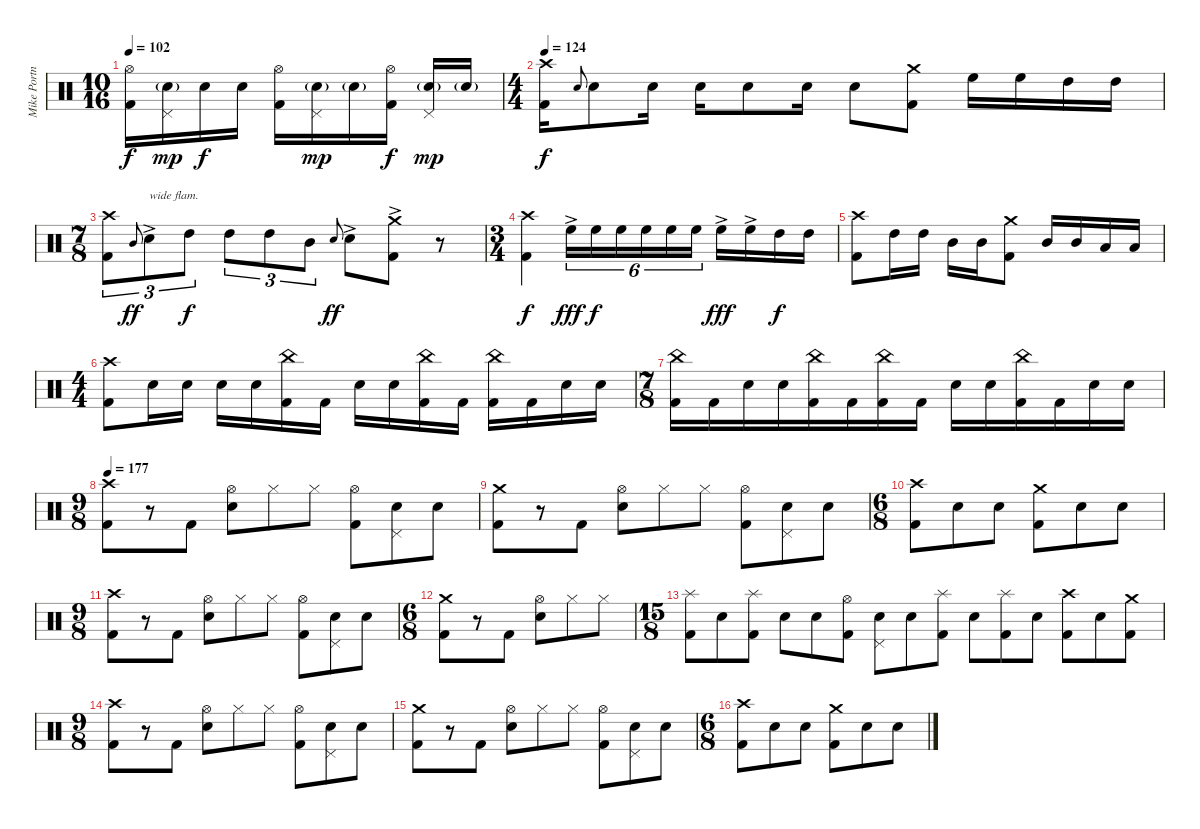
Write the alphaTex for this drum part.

\track ("Mike Portnoy" "Mike Portn") {instrument percussion}
\staff {score}
\articulation defaults
\ts (10 16)
\tempo 102
\clef neutral
\ks c
("Hi-Hat (open)" "Kick (hit) 2").16{dy f} ("Pedal Hi-Hat (hit)" "Electric Snare (hit)"{g}).16{dy mp} "Electric Snare (hit)".16{dy f} "Electric Snare (hit)".16 ("Hi-Hat (open)" "Kick (hit) 2").16 ("Pedal Hi-Hat (hit)" "Electric Snare (hit)"{g}).16{dy mp} "Electric Snare (hit)"{g}.16 ("Hi-Hat (open)" "Kick (hit) 2").16{dy f} ("Pedal Hi-Hat (hit)" "Electric Snare (hit)"{g}).16{dy mp} "Electric Snare (hit)"{g}.16 |
\ts (4 4)
\tempo 124
("Crash high (hit)" "Kick (hit) 2").16{dy f} "Electric Snare (hit)".8{gr onbeat} "Electric Snare (hit)".8 "Electric Snare (hit)".16 "Electric Snare (hit)".16 "Electric Snare (hit)".8 "Electric Snare (hit)".16 "Electric Snare (hit)".8 ("Crash medium (hit)" "Kick (hit) 2").8 "High Floor Tom (hit)".16 "High Floor Tom (hit)".16 "High Tom (hit)".16 "High Tom (hit)".16 |
\ts (7 8)
("Crash high (hit)" "Kick (hit) 2").8{tu (3 2)} "Mid Tom (hit)".8{gr onbeat dy ff} "Electric Snare (hit)"{ac}.8{tu (3 2) txt "wide flam."} "High Tom (hit)".8{tu (3 2) dy f} "High Tom (hit)".8{tu (3 2)} "High Tom (hit)".8{tu (3 2)} "Mid Tom (hit)".8{tu (3 2)} "Electric Snare (hit)".8{gr onbeat dy ff} "Electric Snare (hit)"{ac}.8 ("Crash medium (hit)"{ac} "Kick (hit) 2"{ac}).8 r.8 |
\ts (3 4)
("Crash high (hit)" "Kick (hit) 2").4{dy f} "High Floor Tom (hit)"{ac}.16{tu (6 4) dy fff} "High Floor Tom (hit)".16{tu (6 4) dy f} "High Floor Tom (hit)".16{tu (6 4)} "High Floor Tom (hit)".16{tu (6 4)} "High Floor Tom (hit)".16{tu (6 4)} "High Floor Tom (hit)".16{tu (6 4)} "High Floor Tom (hit)"{ac}.16{dy fff} "High Floor Tom (hit)"{ac}.16 "High Tom (hit)".16{dy f} "High Tom (hit)".16 |
("Crash high (hit)" "Kick (hit) 2").8 "High Tom (hit)".16 "High Tom (hit)".16 "Mid Tom (hit)".16 "Mid Tom (hit)".16 ("Crash medium (hit)" "Kick (hit) 2").8 "Mid Tom (hit)".16 "Mid Tom (hit)".16 "Low Tom (hit)".16 "Low Tom (hit)".16 |
\ts (4 4)
("Crash high (hit)" "Kick (hit) 2").8 "Electric Snare (hit)".16 "Electric Snare (hit)".16 "Electric Snare (hit)".16 "Electric Snare (hit)".16 ("China (hit)" "Kick (hit) 2").16 "Kick (hit) 2".16 "Electric Snare (hit)".16 "Electric Snare (hit)".16 ("China (hit)" "Kick (hit) 2").16 "Kick (hit) 2".16 ("China (hit)" "Kick (hit) 2").16 "Kick (hit) 2".16 "Electric Snare (hit)".16 "Electric Snare (hit)".16 |
\ts (7 8)
("China (hit)" "Kick (hit) 2").16 "Kick (hit) 2".16 "Electric Snare (hit)".16 "Electric Snare (hit)".16 ("China (hit)" "Kick (hit) 2").16 "Kick (hit) 2".16 ("China (hit)" "Kick (hit) 2").16 "Kick (hit) 2".16 "Electric Snare (hit)".16 "Electric Snare (hit)".16 ("China (hit)" "Kick (hit) 2").16 "Kick (hit) 2".16 "Electric Snare (hit)".16 "Electric Snare (hit)".16 |
\ts (9 8)
\tempo 177
("Crash high (hit)" "Kick (hit) 2").8 r.8 "Kick (hit) 2".8 ("Hi-Hat (open)" "Electric Snare (hit)").8 "Hi-Hat (closed)".8 "Hi-Hat (closed)".8 ("Hi-Hat (open)" "Kick (hit) 2").8 ("Pedal Hi-Hat (hit)" "Electric Snare (hit)").8 "Electric Snare (hit)".8 |
("Crash medium (hit)" "Kick (hit) 2").8 r.8 "Kick (hit) 2".8 ("Hi-Hat (open)" "Electric Snare (hit)").8 "Hi-Hat (closed)".8 "Hi-Hat (closed)".8 ("Hi-Hat (open)" "Kick (hit) 2").8 ("Pedal Hi-Hat (hit)" "Electric Snare (hit)").8 "Electric Snare (hit)".8 |
\ts (6 8)
("Crash high (hit)" "Kick (hit) 2").8 "Electric Snare (hit)".8 "Electric Snare (hit)".8 ("Crash medium (hit)" "Kick (hit) 2").8 "Electric Snare (hit)".8 "Electric Snare (hit)".8 |
\ts (9 8)
("Crash high (hit)" "Kick (hit) 2").8 r.8 "Kick (hit) 2".8 ("Hi-Hat (open)" "Electric Snare (hit)").8 "Hi-Hat (closed)".8 "Hi-Hat (closed)".8 ("Hi-Hat (open)" "Kick (hit) 2").8 ("Pedal Hi-Hat (hit)" "Electric Snare (hit)").8 "Electric Snare (hit)".8 |
\ts (6 8)
("Crash medium (hit)" "Kick (hit) 2").8 r.8 "Kick (hit) 2".8 ("Hi-Hat (open)" "Electric Snare (hit)").8 "Hi-Hat (closed)".8 "Hi-Hat (closed)".8 |
\ts (15 8)
("Splash (hit)" "Kick (hit) 2").8 "Electric Snare (hit)".8 ("Splash (hit)" "Kick (hit) 2").8 "Electric Snare (hit)".8 "Electric Snare (hit)".8 ("Hi-Hat (open)" "Kick (hit) 2").8 ("Pedal Hi-Hat (hit)" "Electric Snare (hit)").8 "Electric Snare (hit)".8 ("Splash (hit)" "Kick (hit) 2").8 "Electric Snare (hit)".8 ("Splash (hit)" "Kick (hit) 2").8 "Electric Snare (hit)".8 ("Crash high (hit)" "Kick (hit) 2").8 "Electric Snare (hit)".8 ("Crash medium (hit)" "Kick (hit) 2").8 |
\ts (9 8)
("Crash high (hit)" "Kick (hit) 2").8 r.8 "Kick (hit) 2".8 ("Hi-Hat (open)" "Electric Snare (hit)").8 "Hi-Hat (closed)".8 "Hi-Hat (closed)".8 ("Hi-Hat (open)" "Kick (hit) 2").8 ("Pedal Hi-Hat (hit)" "Electric Snare (hit)").8 "Electric Snare (hit)".8 |
("Crash medium (hit)" "Kick (hit) 2").8 r.8 "Kick (hit) 2".8 ("Hi-Hat (open)" "Electric Snare (hit)").8 "Hi-Hat (closed)".8 "Hi-Hat (closed)".8 ("Hi-Hat (open)" "Kick (hit) 2").8 ("Pedal Hi-Hat (hit)" "Electric Snare (hit)").8 "Electric Snare (hit)".8 |
\ts (6 8)
("Crash high (hit)" "Kick (hit) 2").8 "Electric Snare (hit)".8 "Electric Snare (hit)".8 ("Crash medium (hit)" "Kick (hit) 2").8 "Electric Snare (hit)".8 "Electric Snare (hit)".8
